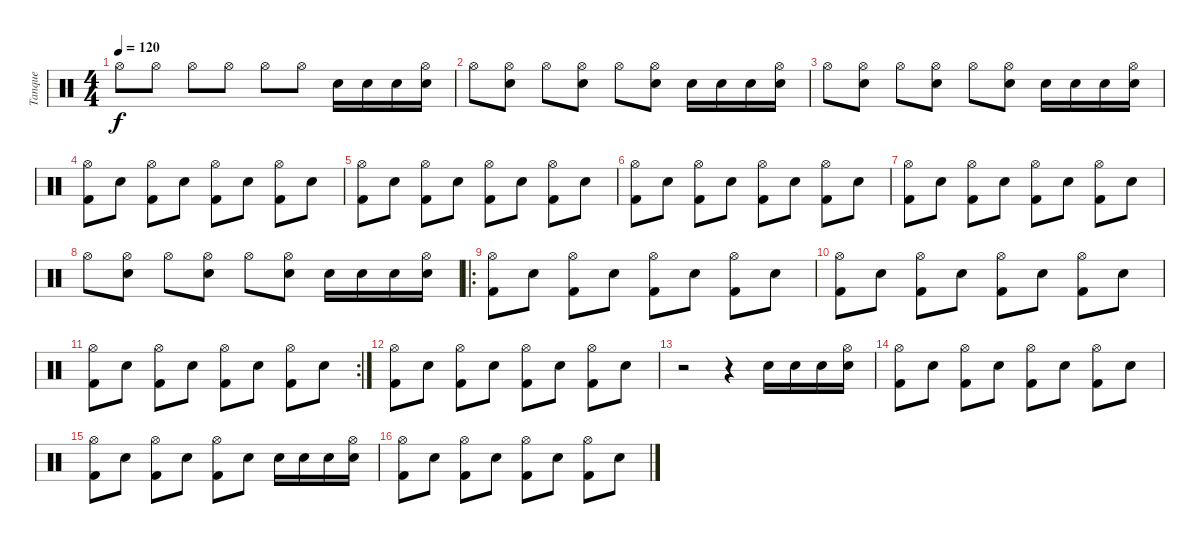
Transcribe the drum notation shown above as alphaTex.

\track ("Tanque" "Tanque") {instrument percussion}
\staff {score}
\articulation defaults
\ts (4 4)
\tempo 120
\clef neutral
\ks c "Hi-Hat (open)".8{dy f} "Hi-Hat (open)".8 "Hi-Hat (open)".8 "Hi-Hat (open)".8 "Hi-Hat (open)".8 "Hi-Hat (open)".8 "Electric Snare (hit)".16 "Electric Snare (hit)".16 "Electric Snare (hit)".16
("Electric Snare (hit)" "Hi-Hat (open)").16 |
"Hi-Hat (open)".8 ("Electric Snare (hit)" "Hi-Hat (open)").8 "Hi-Hat (open)".8 ("Electric Snare (hit)" "Hi-Hat (open)").8 "Hi-Hat (open)".8 ("Electric Snare (hit)" "Hi-Hat (open)").8 "Electric Snare (hit)".16 "Electric Snare (hit)".16 "Electric Snare (hit)".16 ("Electric Snare (hit)" "Hi-Hat (open)").16 |
"Hi-Hat (open)".8 ("Electric Snare (hit)" "Hi-Hat (open)").8 "Hi-Hat (open)".8 ("Electric Snare (hit)" "Hi-Hat (open)").8 "Hi-Hat (open)".8 ("Electric Snare (hit)" "Hi-Hat (open)").8 "Electric Snare (hit)".16 "Electric Snare (hit)".16 "Electric Snare (hit)".16 ("Electric Snare (hit)" "Hi-Hat (open)").16 |
("Kick (hit) 2" "Hi-Hat (open)").8 "Electric Snare (hit)".8 ("Kick (hit) 2" "Hi-Hat (open)").8 "Electric Snare (hit)".8 ("Kick (hit) 2" "Hi-Hat (open)").8 "Electric Snare (hit)".8 ("Kick (hit) 2" "Hi-Hat (open)").8 "Electric Snare (hit)".8 |
("Kick (hit) 2" "Hi-Hat (open)").8 "Electric Snare (hit)".8 ("Kick (hit) 2" "Hi-Hat (open)").8 "Electric Snare (hit)".8 ("Kick (hit) 2" "Hi-Hat (open)").8 "Electric Snare (hit)".8 ("Kick (hit) 2" "Hi-Hat (open)").8 "Electric Snare (hit)".8 |
("Kick (hit) 2" "Hi-Hat (open)").8 "Electric Snare (hit)".8 ("Kick (hit) 2" "Hi-Hat (open)").8 "Electric Snare (hit)".8 ("Kick (hit) 2" "Hi-Hat (open)").8 "Electric Snare (hit)".8 ("Kick (hit) 2" "Hi-Hat (open)").8 "Electric Snare (hit)".8 |
("Kick (hit) 2" "Hi-Hat (open)").8 "Electric Snare (hit)".8 ("Kick (hit) 2" "Hi-Hat (open)").8 "Electric Snare (hit)".8 ("Kick (hit) 2" "Hi-Hat (open)").8 "Electric Snare (hit)".8 ("Kick (hit) 2" "Hi-Hat (open)").8 "Electric Snare (hit)".8 |
"Hi-Hat (open)".8 ("Electric Snare (hit)" "Hi-Hat (open)").8 "Hi-Hat (open)".8 ("Electric Snare (hit)" "Hi-Hat (open)").8 "Hi-Hat (open)".8 ("Electric Snare (hit)" "Hi-Hat (open)").8 "Electric Snare (hit)".16 "Electric Snare (hit)".16 "Electric Snare (hit)".16 ("Electric Snare (hit)" "Hi-Hat (open)").16 |
\ro
("Kick (hit) 2" "Hi-Hat (open)").8 "Electric Snare (hit)".8 ("Kick (hit) 2" "Hi-Hat (open)").8 "Electric Snare (hit)".8 ("Kick (hit) 2" "Hi-Hat (open)").8 "Electric Snare (hit)".8 ("Kick (hit) 2" "Hi-Hat (open)").8 "Electric Snare (hit)".8 |
("Kick (hit) 2" "Hi-Hat (open)").8 "Electric Snare (hit)".8 ("Kick (hit) 2" "Hi-Hat (open)").8 "Electric Snare (hit)".8 ("Kick (hit) 2" "Hi-Hat (open)").8 "Electric Snare (hit)".8 ("Kick (hit) 2" "Hi-Hat (open)").8 "Electric Snare (hit)".8 |
\rc 2
("Kick (hit) 2" "Hi-Hat (open)").8 "Electric Snare (hit)".8 ("Kick (hit) 2" "Hi-Hat (open)").8 "Electric Snare (hit)".8 ("Kick (hit) 2" "Hi-Hat (open)").8 "Electric Snare (hit)".8 ("Kick (hit) 2" "Hi-Hat (open)").8 "Electric Snare (hit)".8 |
("Kick (hit) 2" "Hi-Hat (open)").8 "Electric Snare (hit)".8 ("Kick (hit) 2" "Hi-Hat (open)").8 "Electric Snare (hit)".8 ("Kick (hit) 2" "Hi-Hat (open)").8 "Electric Snare (hit)".8 ("Kick (hit) 2" "Hi-Hat (open)").8 "Electric Snare (hit)".8 |
r.2 r.4 "Electric Snare (hit)".16 "Electric Snare (hit)".16 "Electric Snare (hit)".16 ("Electric Snare (hit)" "Hi-Hat (open)").16 |
("Kick (hit) 2" "Hi-Hat (open)").8 "Electric Snare (hit)".8 ("Kick (hit) 2" "Hi-Hat (open)").8 "Electric Snare (hit)".8 ("Kick (hit) 2" "Hi-Hat (open)").8 "Electric Snare (hit)".8 ("Kick (hit) 2" "Hi-Hat (open)").8 "Electric Snare (hit)".8 |
("Kick (hit) 2" "Hi-Hat (open)").8 "Electric Snare (hit)".8 ("Kick (hit) 2" "Hi-Hat (open)").8 "Electric Snare (hit)".8 ("Kick (hit) 2" "Hi-Hat (open)").8 "Electric Snare (hit)".8 "Electric Snare (hit)".16 "Electric Snare (hit)".16 "Electric Snare (hit)".16 ("Electric Snare (hit)" "Hi-Hat (open)").16 |
("Kick (hit) 2" "Hi-Hat (open)").8 "Electric Snare (hit)".8 ("Kick (hit) 2" "Hi-Hat (open)").8 "Electric Snare (hit)".8 ("Kick (hit) 2" "Hi-Hat (open)").8 "Electric Snare (hit)".8 ("Kick (hit) 2" "Hi-Hat (open)").8 "Electric Snare (hit)".8
